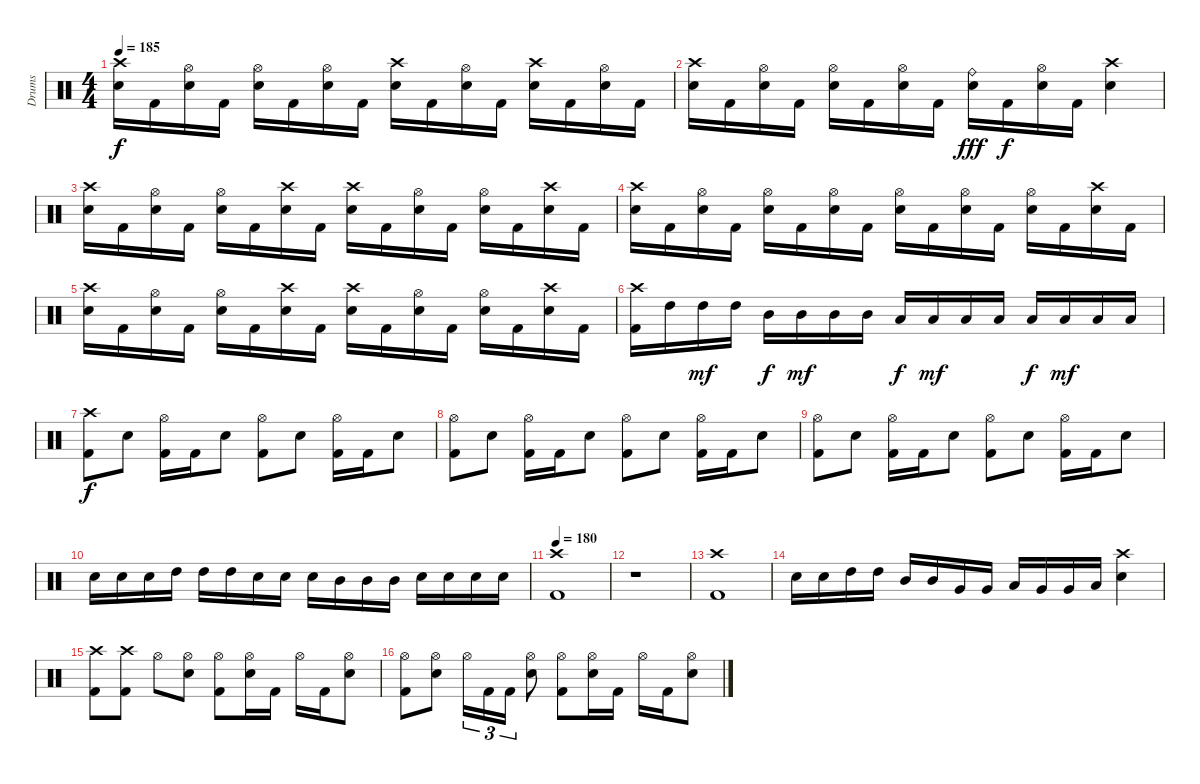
\track ("Drums" "Drums") {instrument percussion}
\staff {score}
\articulation defaults
\ts (4 4)
\tempo 185
\clef neutral
\ks c
("Crash high (hit)" "Electric Snare (hit)").16{dy f} "Kick (hit) 2".16 ("Hi-Hat (open)" "Electric Snare (hit)").16 "Kick (hit) 2".16 ("Hi-Hat (open)" "Electric Snare (hit)").16 "Kick (hit) 2".16 ("Hi-Hat (open)" "Electric Snare (hit)").16 "Kick (hit) 2".16 ("Crash high (hit)" "Electric Snare (hit)").16 "Kick (hit) 2".16 ("Hi-Hat (open)" "Electric Snare (hit)").16 "Kick (hit) 2".16 ("Crash high (hit)" "Electric Snare (hit)").16 "Kick (hit) 2".16 ("Hi-Hat (open)" "Electric Snare (hit)").16 "Kick (hit) 2".16 |
("Crash high (hit)" "Electric Snare (hit)").16 "Kick (hit) 2".16 ("Hi-Hat (open)" "Electric Snare (hit)").16 "Kick (hit) 2".16 ("Hi-Hat (open)" "Electric Snare (hit)").16 "Kick (hit) 2".16 ("Hi-Hat (open)" "Electric Snare (hit)").16 "Kick (hit) 2".16 ("Ride (bell)" "Electric Snare (hit)").16{dy fff} "Kick (hit) 2".16{dy f} ("Hi-Hat (open)" "Electric Snare (hit)").16 "Kick (hit) 2".16 ("Crash high (hit)" "Electric Snare (hit)").4 |
("Crash high (hit)" "Electric Snare (hit)").16 "Kick (hit) 2".16 ("Hi-Hat (open)" "Electric Snare (hit)").16 "Kick (hit) 2".16 ("Hi-Hat (open)" "Electric Snare (hit)").16 "Kick (hit) 2".16 ("Crash high (hit)" "Electric Snare (hit)").16 "Kick (hit) 2".16 ("Crash high (hit)" "Electric Snare (hit)").16 "Kick (hit) 2".16 ("Hi-Hat (open)" "Electric Snare (hit)").16 "Kick (hit) 2".16 ("Hi-Hat (open)" "Electric Snare (hit)").16 "Kick (hit) 2".16 ("Crash high (hit)" "Electric Snare (hit)").16 "Kick (hit) 2".16 |
("Crash high (hit)" "Electric Snare (hit)").16 "Kick (hit) 2".16 ("Hi-Hat (open)" "Electric Snare (hit)").16 "Kick (hit) 2".16 ("Hi-Hat (open)" "Electric Snare (hit)").16 "Kick (hit) 2".16 ("Hi-Hat (open)" "Electric Snare (hit)").16 "Kick (hit) 2".16 ("Hi-Hat (open)" "Electric Snare (hit)").16 "Kick (hit) 2".16 ("Hi-Hat (open)" "Electric Snare (hit)").16 "Kick (hit) 2".16 ("Hi-Hat (open)" "Electric Snare (hit)").16 "Kick (hit) 2".16 ("Crash high (hit)" "Electric Snare (hit)").16 "Kick (hit) 2".16 |
("Crash high (hit)" "Electric Snare (hit)").16 "Kick (hit) 2".16 ("Hi-Hat (open)" "Electric Snare (hit)").16 "Kick (hit) 2".16 ("Hi-Hat (open)" "Electric Snare (hit)").16 "Kick (hit) 2".16 ("Crash high (hit)" "Electric Snare (hit)").16 "Kick (hit) 2".16 ("Crash high (hit)" "Electric Snare (hit)").16 "Kick (hit) 2".16 ("Hi-Hat (open)" "Electric Snare (hit)").16 "Kick (hit) 2".16 ("Hi-Hat (open)" "Electric Snare (hit)").16 "Kick (hit) 2".16 ("Crash high (hit)" "Electric Snare (hit)").16 "Kick (hit) 2".16 |
("Crash high (hit)" "Kick (hit) 2").16 "High Tom (hit)".16 "High Tom (hit)".16{dy mf} "High Tom (hit)".16 "Mid Tom (hit)".16{dy f} "Mid Tom (hit)".16{dy mf} "Mid Tom (hit)".16 "Mid Tom (hit)".16 "Low Tom (hit)".16{dy f} "Low Tom (hit)".16{dy mf} "Low Tom (hit)".16 "Low Tom (hit)".16 "Low Floor Tom (hit)".16{dy f} "Low Floor Tom (hit)".16{dy mf} "Low Floor Tom (hit)".16 "Low Floor Tom (hit)".16 |
("Crash high (hit)" "Kick (hit) 2").8{dy f} "Electric Snare (hit)".8 ("Hi-Hat (open)" "Kick (hit) 2").16 "Kick (hit) 2".16 "Electric Snare (hit)".8 ("Hi-Hat (open)" "Kick (hit) 2").8 "Electric Snare (hit)".8 ("Hi-Hat (open)" "Kick (hit) 2").16 "Kick (hit) 2".16 "Electric Snare (hit)".8 |
("Hi-Hat (open)" "Kick (hit) 2").8 "Electric Snare (hit)".8 ("Hi-Hat (open)" "Kick (hit) 2").16 "Kick (hit) 2".16 "Electric Snare (hit)".8 ("Hi-Hat (open)" "Kick (hit) 2").8 "Electric Snare (hit)".8 ("Hi-Hat (open)" "Kick (hit) 2").16 "Kick (hit) 2".16 "Electric Snare (hit)".8 |
("Hi-Hat (open)" "Kick (hit) 2").8 "Electric Snare (hit)".8 ("Hi-Hat (open)" "Kick (hit) 2").16 "Kick (hit) 2".16 "Electric Snare (hit)".8 ("Hi-Hat (open)" "Kick (hit) 2").8 "Electric Snare (hit)".8 ("Hi-Hat (open)" "Kick (hit) 2").16 "Kick (hit) 2".16 "Electric Snare (hit)".8 |
"Electric Snare (hit)".16 "Electric Snare (hit)".16 "Electric Snare (hit)".16 "High Tom (hit)".16 "High Tom (hit)".16 "High Tom (hit)".16 "Electric Snare (hit)".16 "Electric Snare (hit)".16 "Electric Snare (hit)".16 "Mid Tom (hit)".16 "Mid Tom (hit)".16 "Mid Tom (hit)".16 "Electric Snare (hit)".16 "Electric Snare (hit)".16 "Electric Snare (hit)".16 "Electric Snare (hit)".16 |
\tempo 180
("Crash high (hit)" "Kick (hit) 2").1 |
r.1 |
("Crash high (hit)" "Kick (hit) 2").1 |
"Electric Snare (hit)".16 "Electric Snare (hit)".16 "High Tom (hit)".16 "High Tom (hit)".16 "Mid Tom (hit)".16 "Mid Tom (hit)".16 "Very Low Tom (hit)".16 "Very Low Tom (hit)".16 "Low Tom (hit)".16 "Very Low Tom (hit)".16 "Very Low Tom (hit)".16 "Low Tom (hit)".16 ("Crash high (hit)" "Electric Snare (hit)").4 |
("Crash high (hit)" "Kick (hit) 2").8 ("Crash high (hit)" "Kick (hit) 2").8 "Hi-Hat (open)".8 ("Hi-Hat (open)" "Electric Snare (hit)").8 ("Hi-Hat (open)" "Kick (hit) 2").8 ("Hi-Hat (open)" "Electric Snare (hit)").16 "Kick (hit) 2".16 "Hi-Hat (open)".16 "Kick (hit) 2".16 ("Hi-Hat (open)" "Electric Snare (hit)").8 |
("Hi-Hat (open)" "Kick (hit) 2").8 ("Hi-Hat (open)" "Electric Snare (hit)").8 "Hi-Hat (open)".16{tu (3 2)} "Kick (hit) 2".16{tu (3 2)} "Kick (hit) 2".16{tu (3 2)} ("Hi-Hat (open)" "Electric Snare (hit)").8 ("Hi-Hat (open)" "Kick (hit) 2").8 ("Hi-Hat (open)" "Electric Snare (hit)").16 "Kick (hit) 2".16 "Hi-Hat (open)".16 "Kick (hit) 2".16 ("Hi-Hat (open)" "Electric Snare (hit)").8
